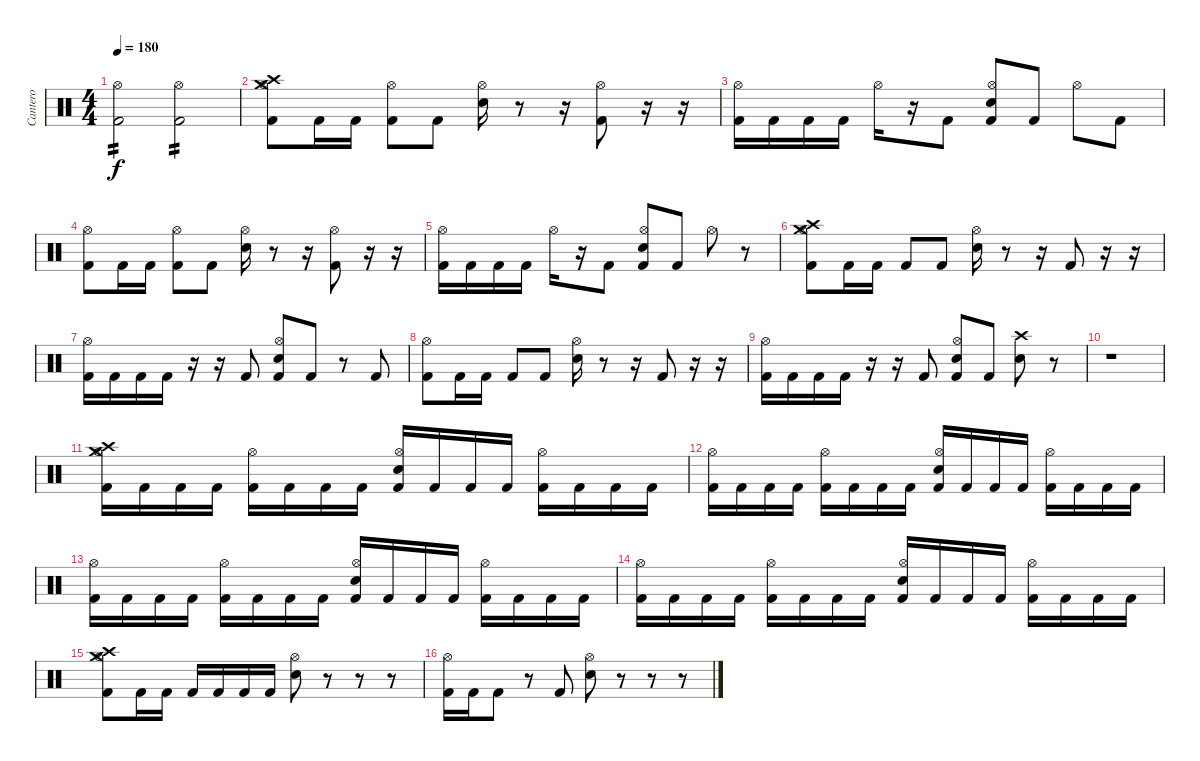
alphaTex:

\track ("Cantero" "Cantero") {instrument percussion}
\staff {score}
\articulation defaults
\ts (4 4)
\tempo 180
\clef neutral
\ks c
("Kick (hit) 2" "Hi-Hat (open)").2{tp 2 dy f} ("Kick (hit) 2" "Hi-Hat (open)").2{tp 2} |
("Kick (hit) 2" "Hi-Hat (open)" "Crash medium (hit)" "Crash high (hit)").8 "Kick (hit) 2".16 "Kick (hit) 2".16 ("Kick (hit) 2" "Hi-Hat (open)").8 "Kick (hit) 2".8 ("Electric Snare (hit)" "Hi-Hat (open)").16 r.8 r.16 ("Kick (hit) 2" "Hi-Hat (open)").8 r.16 r.16 |
("Kick (hit) 2" "Hi-Hat (open)").16 "Kick (hit) 2".16 "Kick (hit) 2".16 "Kick (hit) 2".16 "Hi-Hat (open)".16 r.16 "Kick (hit) 2".8 ("Kick (hit) 2" "Electric Snare (hit)" "Hi-Hat (open)").8 "Kick (hit) 2".8 "Hi-Hat (open)".8 "Kick (hit) 2".8 |
("Kick (hit) 2" "Hi-Hat (open)").8 "Kick (hit) 2".16 "Kick (hit) 2".16 ("Kick (hit) 2" "Hi-Hat (open)").8 "Kick (hit) 2".8 ("Electric Snare (hit)" "Hi-Hat (open)").16 r.8 r.16 ("Kick (hit) 2" "Hi-Hat (open)").8 r.16 r.16 |
("Kick (hit) 2" "Hi-Hat (open)").16 "Kick (hit) 2".16 "Kick (hit) 2".16 "Kick (hit) 2".16 "Hi-Hat (open)".16 r.16 "Kick (hit) 2".8 ("Kick (hit) 2" "Electric Snare (hit)" "Hi-Hat (open)").8 "Kick (hit) 2".8 "Hi-Hat (open)".8 r.8 |
("Kick (hit) 2" "Hi-Hat (open)" "Crash medium (hit)" "Crash high (hit)").8 "Kick (hit) 2".16 "Kick (hit) 2".16 "Kick (hit) 2".8 "Kick (hit) 2".8 ("Electric Snare (hit)" "Hi-Hat (open)").16 r.8 r.16 "Kick (hit) 2".8 r.16 r.16 |
("Kick (hit) 2" "Hi-Hat (open)").16 "Kick (hit) 2".16 "Kick (hit) 2".16 "Kick (hit) 2".16 r.16 r.16 "Kick (hit) 2".8 ("Kick (hit) 2" "Electric Snare (hit)" "Hi-Hat (open)").8 "Kick (hit) 2".8 r.8 "Kick (hit) 2".8 |
("Kick (hit) 2" "Hi-Hat (open)").8 "Kick (hit) 2".16 "Kick (hit) 2".16 "Kick (hit) 2".8 "Kick (hit) 2".8 ("Electric Snare (hit)" "Hi-Hat (open)").16 r.8 r.16 "Kick (hit) 2".8 r.16 r.16 |
("Kick (hit) 2" "Hi-Hat (open)").16 "Kick (hit) 2".16 "Kick (hit) 2".16 "Kick (hit) 2".16 r.16 r.16 "Kick (hit) 2".8 ("Kick (hit) 2" "Electric Snare (hit)" "Hi-Hat (open)").8 "Kick (hit) 2".8 ("Crash high (hit)" "Electric Snare (hit)").8 r.8 |
r.1 |
("Kick (hit) 2" "Hi-Hat (open)" "Crash high (hit)" "Crash medium (hit)").16 "Kick (hit) 2".16 "Kick (hit) 2".16 "Kick (hit) 2".16 ("Kick (hit) 2" "Hi-Hat (open)").16 "Kick (hit) 2".16 "Kick (hit) 2".16 "Kick (hit) 2".16 ("Kick (hit) 2" "Hi-Hat (open)" "Electric Snare (hit)").16 "Kick (hit) 2".16 "Kick (hit) 2".16 "Kick (hit) 2".16 ("Kick (hit) 2" "Hi-Hat (open)").16 "Kick (hit) 2".16 "Kick (hit) 2".16 "Kick (hit) 2".16 |
("Kick (hit) 2" "Hi-Hat (open)").16 "Kick (hit) 2".16 "Kick (hit) 2".16 "Kick (hit) 2".16 ("Kick (hit) 2" "Hi-Hat (open)").16 "Kick (hit) 2".16 "Kick (hit) 2".16 "Kick (hit) 2".16 ("Kick (hit) 2" "Hi-Hat (open)" "Electric Snare (hit)").16 "Kick (hit) 2".16 "Kick (hit) 2".16 "Kick (hit) 2".16 ("Kick (hit) 2" "Hi-Hat (open)").16 "Kick (hit) 2".16 "Kick (hit) 2".16 "Kick (hit) 2".16 |
("Kick (hit) 2" "Hi-Hat (open)").16 "Kick (hit) 2".16 "Kick (hit) 2".16 "Kick (hit) 2".16 ("Kick (hit) 2" "Hi-Hat (open)").16 "Kick (hit) 2".16 "Kick (hit) 2".16 "Kick (hit) 2".16 ("Kick (hit) 2" "Hi-Hat (open)" "Electric Snare (hit)").16 "Kick (hit) 2".16 "Kick (hit) 2".16 "Kick (hit) 2".16 ("Kick (hit) 2" "Hi-Hat (open)").16 "Kick (hit) 2".16 "Kick (hit) 2".16 "Kick (hit) 2".16 |
("Kick (hit) 2" "Hi-Hat (open)").16 "Kick (hit) 2".16 "Kick (hit) 2".16 "Kick (hit) 2".16 ("Kick (hit) 2" "Hi-Hat (open)").16 "Kick (hit) 2".16 "Kick (hit) 2".16 "Kick (hit) 2".16 ("Kick (hit) 2" "Hi-Hat (open)" "Electric Snare (hit)").16 "Kick (hit) 2".16 "Kick (hit) 2".16 "Kick (hit) 2".16 ("Kick (hit) 2" "Hi-Hat (open)").16 "Kick (hit) 2".16 "Kick (hit) 2".16 "Kick (hit) 2".16 |
("Kick (hit) 2" "Hi-Hat (open)" "Crash high (hit)" "Crash medium (hit)").8 "Kick (hit) 2".16 "Kick (hit) 2".16 "Kick (hit) 2".16 "Kick (hit) 2".16 "Kick (hit) 2".16 "Kick (hit) 2".16 ("Electric Snare (hit)" "Hi-Hat (open)").8 r.8 r.8 r.8 |
("Kick (hit) 2" "Hi-Hat (open)").16 "Kick (hit) 2".16 "Kick (hit) 2".8 r.8 "Kick (hit) 2".8 ("Electric Snare (hit)" "Hi-Hat (open)").8 r.8 r.8 r.8
